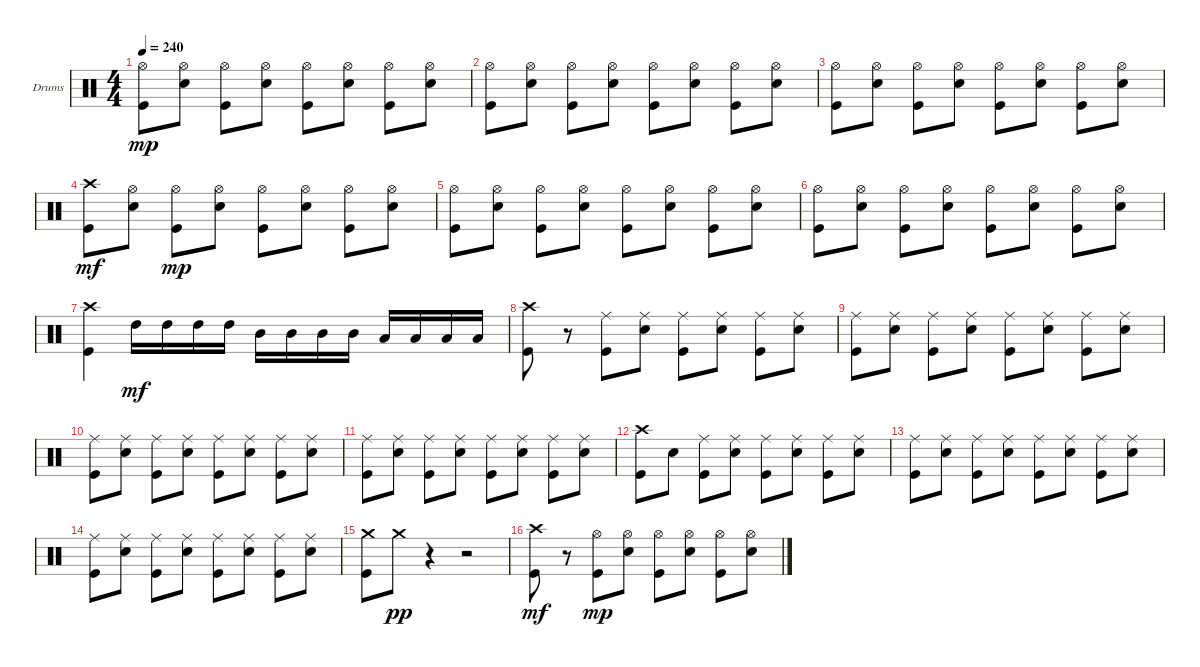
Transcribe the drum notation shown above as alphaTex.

\bracketExtendMode groupsimilarinstruments
\firstSystemTrackNameOrientation horizontal
\otherSystemsTrackNameOrientation horizontal
\track ("Drumkit" "Drums") {instrument percussion}
\staff {score}
\articulation defaults
\ts (4 4)
\tempo 240
\clef neutral
\ks c
("Hi-Hat (open)" "Kick (hit)").8{dy mp} ("Hi-Hat (open)" "Snare (hit) 2").8 ("Hi-Hat (open)" "Kick (hit)").8 ("Hi-Hat (open)" "Snare (hit) 2").8 ("Hi-Hat (open)" "Kick (hit)").8 ("Hi-Hat (open)" "Snare (hit) 2").8 ("Hi-Hat (open)" "Kick (hit)").8 ("Hi-Hat (open)" "Snare (hit) 2").8 |
("Hi-Hat (open)" "Kick (hit)").8 ("Hi-Hat (open)" "Snare (hit) 2").8 ("Hi-Hat (open)" "Kick (hit)").8 ("Hi-Hat (open)" "Snare (hit) 2").8 ("Hi-Hat (open)" "Kick (hit)").8 ("Hi-Hat (open)" "Snare (hit) 2").8 ("Hi-Hat (open)" "Kick (hit)").8 ("Hi-Hat (open)" "Snare (hit) 2").8 |
("Hi-Hat (open)" "Kick (hit)").8 ("Hi-Hat (open)" "Snare (hit) 2").8 ("Hi-Hat (open)" "Kick (hit)").8 ("Hi-Hat (open)" "Snare (hit) 2").8 ("Hi-Hat (open)" "Kick (hit)").8 ("Hi-Hat (open)" "Snare (hit) 2").8 ("Hi-Hat (open)" "Kick (hit)").8 ("Hi-Hat (open)" "Snare (hit) 2").8 |
("Crash high (hit)" "Kick (hit)").8{dy mf} ("Hi-Hat (open)" "Snare (hit) 2").8 ("Hi-Hat (open)" "Kick (hit)").8{dy mp} ("Hi-Hat (open)" "Snare (hit) 2").8 ("Hi-Hat (open)" "Kick (hit)").8 ("Hi-Hat (open)" "Snare (hit) 2").8 ("Hi-Hat (open)" "Kick (hit)").8 ("Hi-Hat (open)" "Snare (hit) 2").8 |
("Hi-Hat (open)" "Kick (hit)").8 ("Hi-Hat (open)" "Snare (hit) 2").8 ("Hi-Hat (open)" "Kick (hit)").8 ("Hi-Hat (open)" "Snare (hit) 2").8 ("Hi-Hat (open)" "Kick (hit)").8 ("Hi-Hat (open)" "Snare (hit) 2").8 ("Hi-Hat (open)" "Kick (hit)").8 ("Hi-Hat (open)" "Snare (hit) 2").8 |
("Hi-Hat (open)" "Kick (hit)").8 ("Hi-Hat (open)" "Snare (hit) 2").8 ("Hi-Hat (open)" "Kick (hit)").8 ("Hi-Hat (open)" "Snare (hit) 2").8 ("Hi-Hat (open)" "Kick (hit)").8 ("Hi-Hat (open)" "Snare (hit) 2").8 ("Hi-Hat (open)" "Kick (hit)").8 ("Hi-Hat (open)" "Snare (hit) 2").8 |
("Crash high (hit)" "Kick (hit)").4 "High Tom (hit)".16{dy mf} "High Tom (hit)".16 "High Tom (hit)".16 "High Tom (hit)".16 "Mid Tom (hit)".16 "Mid Tom (hit)".16 "Mid Tom (hit)".16 "Mid Tom (hit)".16 "Low Tom (hit)".16 "Low Tom (hit)".16 "Low Tom (hit)".16 "Low Tom (hit)".16 |
("Crash high (hit)" "Kick (hit)").8 r.8 ("Ride (middle)" "Kick (hit)").8 ("Ride (middle)" "Snare (hit) 2").8 ("Ride (middle)" "Kick (hit)").8 ("Ride (middle)" "Snare (hit) 2").8 ("Ride (middle)" "Kick (hit)").8 ("Ride (middle)" "Snare (hit) 2").8 |
("Ride (middle)" "Kick (hit)").8 ("Ride (middle)" "Snare (hit) 2").8 ("Ride (middle)" "Kick (hit)").8 ("Ride (middle)" "Snare (hit) 2").8 ("Ride (middle)" "Kick (hit)").8 ("Ride (middle)" "Snare (hit) 2").8 ("Ride (middle)" "Kick (hit)").8 ("Ride (middle)" "Snare (hit) 2").8 |
("Ride (middle)" "Kick (hit)").8 ("Ride (middle)" "Snare (hit) 2").8 ("Ride (middle)" "Kick (hit)").8 ("Ride (middle)" "Snare (hit) 2").8 ("Ride (middle)" "Kick (hit)").8 ("Ride (middle)" "Snare (hit) 2").8 ("Ride (middle)" "Kick (hit)").8 ("Ride (middle)" "Snare (hit) 2").8 |
("Ride (middle)" "Kick (hit)").8 ("Ride (middle)" "Snare (hit) 2").8 ("Ride (middle)" "Kick (hit)").8 ("Ride (middle)" "Snare (hit) 2").8 ("Ride (middle)" "Kick (hit)").8 ("Ride (middle)" "Snare (hit) 2").8 ("Ride (middle)" "Kick (hit)").8 ("Ride (middle)" "Snare (hit) 2").8 |
("Crash high (hit)" "Kick (hit)").8 "Snare (hit) 2".8 ("Ride (middle)" "Kick (hit)").8 ("Ride (middle)" "Snare (hit) 2").8 ("Ride (middle)" "Kick (hit)").8 ("Ride (middle)" "Snare (hit) 2").8 ("Ride (middle)" "Kick (hit)").8 ("Ride (middle)" "Snare (hit) 2").8 |
("Ride (middle)" "Kick (hit)").8 ("Ride (middle)" "Snare (hit) 2").8 ("Ride (middle)" "Kick (hit)").8 ("Ride (middle)" "Snare (hit) 2").8 ("Ride (middle)" "Kick (hit)").8 ("Ride (middle)" "Snare (hit) 2").8 ("Ride (middle)" "Kick (hit)").8 ("Ride (middle)" "Snare (hit) 2").8 |
("Ride (middle)" "Kick (hit)").8 ("Ride (middle)" "Snare (hit) 2").8 ("Ride (middle)" "Kick (hit)").8 ("Ride (middle)" "Snare (hit) 2").8 ("Ride (middle)" "Kick (hit)").8 ("Ride (middle)" "Snare (hit) 2").8 ("Ride (middle)" "Kick (hit)").8 ("Ride (middle)" "Snare (hit) 2").8 |
("Crash medium (hit)" "Kick (hit)").8 "Crash medium (hit)".8{dy pp} r.4 r.2 |
("Crash high (hit)" "Kick (hit)").8{dy mf} r.8 ("Hi-Hat (open)" "Kick (hit)").8{dy mp} ("Hi-Hat (open)" "Snare (hit) 2").8 ("Hi-Hat (open)" "Kick (hit)").8 ("Hi-Hat (open)" "Snare (hit) 2").8 ("Hi-Hat (open)" "Kick (hit)").8 ("Hi-Hat (open)" "Snare (hit) 2").8
